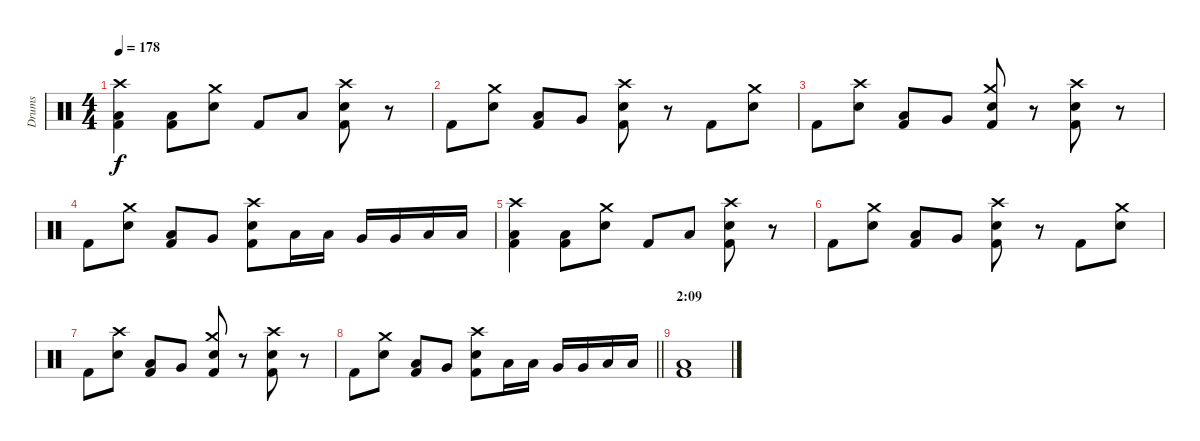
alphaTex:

\track ("Drums" "Drums") {instrument percussion}
\staff {score}
\articulation defaults
\ts (4 4)
\tempo 178
\clef neutral
\ks c
("Crash high (hit)" "Low Floor Tom (hit)" "Kick (hit) 2").4{dy f} ("Low Floor Tom (hit)" "Kick (hit) 2").8 ("Crash medium (hit)" "Electric Snare (hit)").8 "Kick (hit) 2".8 "Low Floor Tom (hit)".8 ("Crash high (hit)" "Electric Snare (hit)" "Kick (hit) 2").8 r.8 |
"Kick (hit) 2".8 ("Crash medium (hit)" "Electric Snare (hit)").8 ("Low Floor Tom (hit)" "Kick (hit) 2").8 "Very Low Tom (hit)".8 ("Crash high (hit)" "Electric Snare (hit)" "Kick (hit) 2").8 r.8 "Kick (hit) 2".8 ("Crash medium (hit)" "Electric Snare (hit)").8 |
"Kick (hit) 2".8 ("Crash high (hit)" "Electric Snare (hit)").8 ("Low Floor Tom (hit)" "Kick (hit) 2").8 "Very Low Tom (hit)".8 ("Crash medium (hit)" "Electric Snare (hit)" "Kick (hit) 2").8 r.8 ("Crash high (hit)" "Electric Snare (hit)" "Kick (hit) 2").8 r.8 |
"Kick (hit) 2".8 ("Crash medium (hit)" "Electric Snare (hit)").8 ("Low Floor Tom (hit)" "Kick (hit) 2").8 "Very Low Tom (hit)".8 ("Crash high (hit)" "Electric Snare (hit)" "Kick (hit) 2").8 "Low Floor Tom (hit)".16 "Low Floor Tom (hit)".16 "Very Low Tom (hit)".16 "Very Low Tom (hit)".16 "Low Floor Tom (hit)".16 "Low Floor Tom (hit)".16 |
("Crash high (hit)" "Low Floor Tom (hit)" "Kick (hit) 2").4 ("Low Floor Tom (hit)" "Kick (hit) 2").8 ("Crash medium (hit)" "Electric Snare (hit)").8 "Kick (hit) 2".8 "Low Floor Tom (hit)".8 ("Crash high (hit)" "Electric Snare (hit)" "Kick (hit) 2").8 r.8 |
"Kick (hit) 2".8 ("Crash medium (hit)" "Electric Snare (hit)").8 ("Low Floor Tom (hit)" "Kick (hit) 2").8 "Very Low Tom (hit)".8 ("Crash high (hit)" "Electric Snare (hit)" "Kick (hit) 2").8 r.8 "Kick (hit) 2".8 ("Crash medium (hit)" "Electric Snare (hit)").8 |
"Kick (hit) 2".8 ("Crash high (hit)" "Electric Snare (hit)").8 ("Low Floor Tom (hit)" "Kick (hit) 2").8 "Very Low Tom (hit)".8 ("Crash medium (hit)" "Electric Snare (hit)" "Kick (hit) 2").8 r.8 ("Crash high (hit)" "Electric Snare (hit)" "Kick (hit) 2").8 r.8 |
\barLineRight lightlight "Kick (hit) 2".8
("Crash medium (hit)" "Electric Snare (hit)").8 ("Low Floor Tom (hit)" "Kick (hit) 2").8 "Very Low Tom (hit)".8 ("Crash high (hit)" "Electric Snare (hit)" "Kick (hit) 2").8 "Low Floor Tom (hit)".16 "Low Floor Tom (hit)".16 "Very Low Tom (hit)".16 "Very Low Tom (hit)".16 "Low Floor Tom (hit)".16 "Low Floor Tom (hit)".16 |
\section ("" "2:09")
("Low Floor Tom (hit)" "Kick (hit) 2").1
